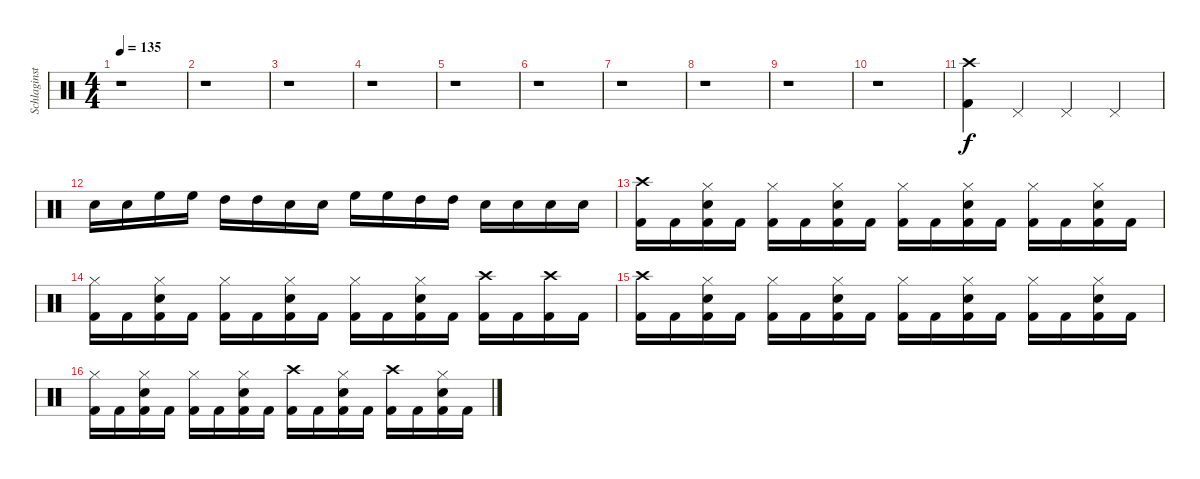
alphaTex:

\track ("Schlaginstrumente - Auswahl" "Schlaginst") {instrument percussion}
\staff {score}
\articulation defaults
\ts (4 4)
\tempo 135
\clef neutral
\ks c
r.1{dy f} |
r.1 |
r.1 |
r.1 |
r.1 |
r.1 |
r.1 |
r.1 |
r.1 |
r.1 |
("Crash high (hit)" "Kick (hit) 2").4 "Pedal Hi-Hat (hit)".4 "Pedal Hi-Hat (hit)".4 "Pedal Hi-Hat (hit)".4 |
"Snare (hit) 2".16 "Snare (hit) 2".16 "High Floor Tom (hit)".16 "High Floor Tom (hit)".16 "High Tom (hit)".16 "High Tom (hit)".16 "Snare (hit) 2".16 "Snare (hit) 2".16 "High Floor Tom (hit)".16 "High Floor Tom (hit)".16 "High Tom (hit)".16 "High Tom (hit)".16 "Snare (hit) 2".16 "Snare (hit) 2".16 "Snare (hit) 2".16 "Snare (hit) 2".16 |
("Crash high (hit)" "Kick (hit) 2").16 "Kick (hit) 2".16 ("Hi-Hat (closed)" "Snare (hit) 2" "Kick (hit) 2").16 "Kick (hit) 2".16 ("Hi-Hat (closed)" "Kick (hit) 2").16 "Kick (hit) 2".16 ("Hi-Hat (closed)" "Snare (hit) 2" "Kick (hit) 2").16 "Kick (hit) 2".16 ("Hi-Hat (closed)" "Kick (hit) 2").16 "Kick (hit) 2".16 ("Hi-Hat (closed)" "Snare (hit) 2" "Kick (hit) 2").16 "Kick (hit) 2".16 ("Hi-Hat (closed)" "Kick (hit) 2").16 "Kick (hit) 2".16 ("Hi-Hat (closed)" "Snare (hit) 2" "Kick (hit) 2").16 "Kick (hit) 2".16 |
("Hi-Hat (closed)" "Kick (hit) 2").16 "Kick (hit) 2".16 ("Hi-Hat (closed)" "Snare (hit) 2" "Kick (hit) 2").16 "Kick (hit) 2".16 ("Hi-Hat (closed)" "Kick (hit) 2").16 "Kick (hit) 2".16 ("Hi-Hat (closed)" "Snare (hit) 2" "Kick (hit) 2").16 "Kick (hit) 2".16 ("Hi-Hat (closed)" "Kick (hit) 2").16 "Kick (hit) 2".16 ("Hi-Hat (closed)" "Snare (hit) 2" "Kick (hit) 2").16 "Kick (hit) 2".16 ("Crash high (hit)" "Kick (hit) 2").16 "Kick (hit) 2".16 ("Crash high (hit)" "Kick (hit) 2").16 "Kick (hit) 2".16 |
("Crash high (hit)" "Kick (hit) 2").16 "Kick (hit) 2".16 ("Hi-Hat (closed)" "Snare (hit) 2" "Kick (hit) 2").16 "Kick (hit) 2".16 ("Hi-Hat (closed)" "Kick (hit) 2").16 "Kick (hit) 2".16 ("Hi-Hat (closed)" "Snare (hit) 2" "Kick (hit) 2").16 "Kick (hit) 2".16 ("Hi-Hat (closed)" "Kick (hit) 2").16 "Kick (hit) 2".16 ("Hi-Hat (closed)" "Snare (hit) 2" "Kick (hit) 2").16 "Kick (hit) 2".16 ("Hi-Hat (closed)" "Kick (hit) 2").16 "Kick (hit) 2".16 ("Hi-Hat (closed)" "Snare (hit) 2" "Kick (hit) 2").16 "Kick (hit) 2".16 |
("Hi-Hat (closed)" "Kick (hit) 2").16 "Kick (hit) 2".16 ("Hi-Hat (closed)" "Snare (hit) 2" "Kick (hit) 2").16 "Kick (hit) 2".16 ("Hi-Hat (closed)" "Kick (hit) 2").16 "Kick (hit) 2".16 ("Hi-Hat (closed)" "Snare (hit) 2" "Kick (hit) 2").16 "Kick (hit) 2".16 ("Crash high (hit)" "Kick (hit) 2").16 "Kick (hit) 2".16 ("Hi-Hat (closed)" "Snare (hit) 2" "Kick (hit) 2").16 "Kick (hit) 2".16 ("Crash high (hit)" "Kick (hit) 2").16 "Kick (hit) 2".16 ("Hi-Hat (closed)" "Snare (hit) 2" "Kick (hit) 2").16 "Kick (hit) 2".16
